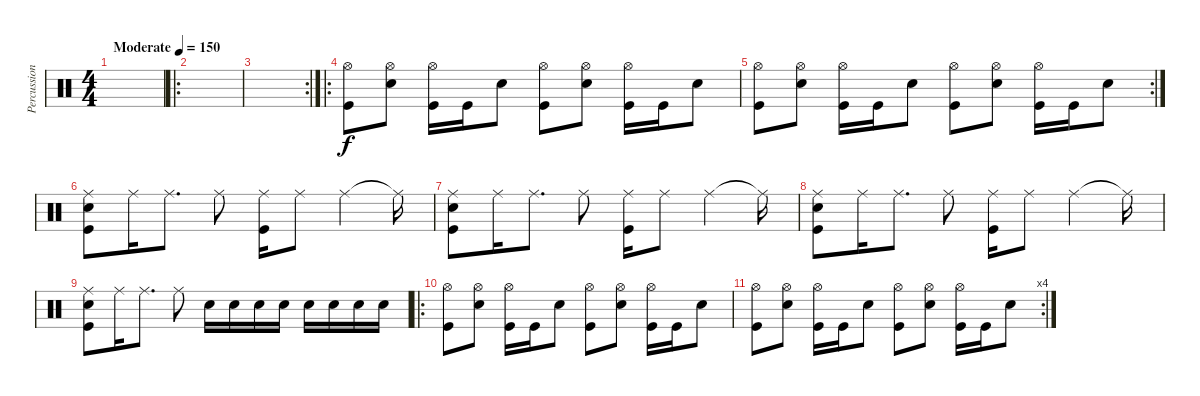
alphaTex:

\track ("Percussion" "Percussion") {instrument percussion}
\staff {score}
\articulation defaults
\ts (4 4)
\tempo (150 "Moderate")
\clef neutral
\ks c
|
\ro
|
\rc 2
|
\ro
("Hi-Hat (open)" "Kick (hit)").8 ("Hi-Hat (open)" "Snare (hit) 2").8 ("Hi-Hat (open)" "Kick (hit)").16 "Kick (hit)".16 "Snare (hit) 2".8 ("Hi-Hat (open)" "Kick (hit)").8 ("Hi-Hat (open)" "Snare (hit) 2").8 ("Hi-Hat (open)" "Kick (hit)").16 "Kick (hit)".16 "Snare (hit) 2".8 |
\rc 2
("Hi-Hat (open)" "Kick (hit)").8 ("Hi-Hat (open)" "Snare (hit) 2").8 ("Hi-Hat (open)" "Kick (hit)").16 "Kick (hit)".16 "Snare (hit) 2".8 ("Hi-Hat (open)" "Kick (hit)").8 ("Hi-Hat (open)" "Snare (hit) 2").8 ("Hi-Hat (open)" "Kick (hit)").16 "Kick (hit)".16 "Snare (hit) 2".8 |
("Ride (middle)" "Snare (hit) 2" "Kick (hit)").8 "Ride (middle)".16 "Ride (middle)".8{d} "Ride (middle)".8 ("Ride (middle)" "Kick (hit)").16 "Ride (middle)".8 "Ride (middle)".4 "Ride (middle)"{t}.16 |
("Ride (middle)" "Snare (hit) 2" "Kick (hit)").8 "Ride (middle)".16 "Ride (middle)".8{d} "Ride (middle)".8 ("Ride (middle)" "Kick (hit)").16 "Ride (middle)".8 "Ride (middle)".4 "Ride (middle)"{t}.16 |
("Ride (middle)" "Snare (hit) 2" "Kick (hit)").8 "Ride (middle)".16 "Ride (middle)".8{d} "Ride (middle)".8 ("Ride (middle)" "Kick (hit)").16 "Ride (middle)".8 "Ride (middle)".4 "Ride (middle)"{t}.16 |
("Ride (middle)" "Snare (hit) 2" "Kick (hit)").8 "Ride (middle)".16 "Ride (middle)".8{d} "Ride (middle)".8 "Snare (hit) 2".16 "Snare (hit) 2".16 "Snare (hit) 2".16 "Snare (hit) 2".16 "Snare (hit) 2".16 "Snare (hit) 2".16 "Snare (hit) 2".16 "Snare (hit) 2".16 |
\ro
("Hi-Hat (open)" "Kick (hit)").8 ("Hi-Hat (open)" "Snare (hit) 2").8 ("Hi-Hat (open)" "Kick (hit)").16 "Kick (hit)".16 "Snare (hit) 2".8 ("Hi-Hat (open)" "Kick (hit)").8 ("Hi-Hat (open)" "Snare (hit) 2").8 ("Hi-Hat (open)" "Kick (hit)").16 "Kick (hit)".16 "Snare (hit) 2".8 |
\rc 4
("Hi-Hat (open)" "Kick (hit)").8 ("Hi-Hat (open)" "Snare (hit) 2").8 ("Hi-Hat (open)" "Kick (hit)").16 "Kick (hit)".16 "Snare (hit) 2".8 ("Hi-Hat (open)" "Kick (hit)").8 ("Hi-Hat (open)" "Snare (hit) 2").8 ("Hi-Hat (open)" "Kick (hit)").16 "Kick (hit)".16 "Snare (hit) 2".8
